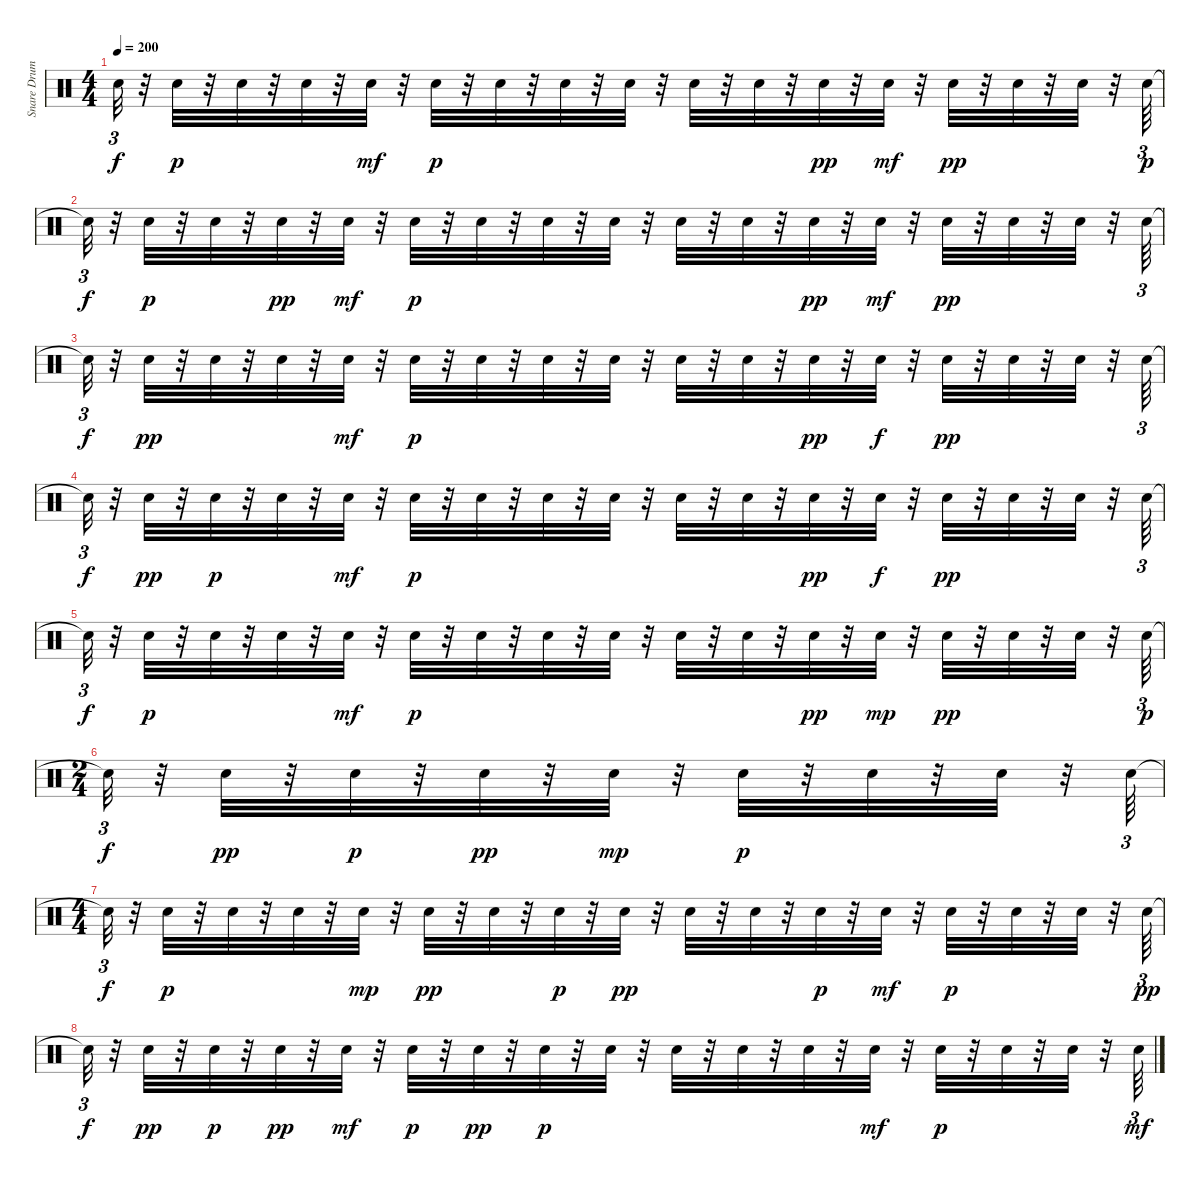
\track ("Snare Drums" "Snare Drum") {instrument percussion}
\staff {score}
\articulation defaults
\ts (4 4)
\tempo 200
\clef neutral
\ks c "Snare (hit)"{t}.32{tu (3 2) dy f}
r.32 "Hand Clap (hit)".32{dy p} r.32 "Hand Clap (hit)".32 r.32 "Hand Clap (hit)".32 r.32 "Hand Clap (hit)".32{dy mf} r.32 "Hand Clap (hit)".32{dy p} r.32 "Hand Clap (hit)".32 r.32 "Hand Clap (hit)".32 r.32 "Hand Clap (hit)".32 r.32 "Hand Clap (hit)".32 r.32 "Hand Clap (hit)".32 r.32 "Hand Clap (hit)".32{dy pp} r.32 "Hand Clap (hit)".32{dy mf} r.32 "Hand Clap (hit)".32{dy pp} r.32 "Hand Clap (hit)".32 r.32 "Hand Clap (hit)".32 r.32 "Hand Clap (hit)".64{tu (3 2) dy p} |
"Snare (hit)"{t}.32{tu (3 2) dy f} r.32 "Hand Clap (hit)".32{dy p} r.32 "Hand Clap (hit)".32 r.32 "Hand Clap (hit)".32{dy pp} r.32 "Hand Clap (hit)".32{dy mf} r.32 "Hand Clap (hit)".32{dy p} r.32 "Hand Clap (hit)".32 r.32 "Hand Clap (hit)".32 r.32 "Hand Clap (hit)".32 r.32 "Hand Clap (hit)".32 r.32 "Hand Clap (hit)".32 r.32 "Hand Clap (hit)".32{dy pp} r.32 "Hand Clap (hit)".32{dy mf} r.32 "Hand Clap (hit)".32{dy pp} r.32 "Hand Clap (hit)".32 r.32 "Hand Clap (hit)".32 r.32 "Hand Clap (hit)".64{tu (3 2)} |
"Snare (hit)"{t}.32{tu (3 2) dy f} r.32 "Hand Clap (hit)".32{dy pp} r.32 "Hand Clap (hit)".32 r.32 "Hand Clap (hit)".32 r.32 "Hand Clap (hit)".32{dy mf} r.32 "Hand Clap (hit)".32{dy p} r.32 "Hand Clap (hit)".32 r.32 "Hand Clap (hit)".32 r.32 "Hand Clap (hit)".32 r.32 "Hand Clap (hit)".32 r.32 "Hand Clap (hit)".32 r.32 "Hand Clap (hit)".32{dy pp} r.32 "Hand Clap (hit)".32{dy f} r.32 "Hand Clap (hit)".32{dy pp} r.32 "Hand Clap (hit)".32 r.32 "Hand Clap (hit)".32 r.32 "Hand Clap (hit)".64{tu (3 2)} |
"Snare (hit)"{t}.32{tu (3 2) dy f} r.32 "Hand Clap (hit)".32{dy pp} r.32 "Hand Clap (hit)".32{dy p} r.32 "Hand Clap (hit)".32 r.32 "Hand Clap (hit)".32{dy mf} r.32 "Hand Clap (hit)".32{dy p} r.32 "Hand Clap (hit)".32 r.32 "Hand Clap (hit)".32 r.32 "Hand Clap (hit)".32 r.32 "Hand Clap (hit)".32 r.32 "Hand Clap (hit)".32 r.32 "Hand Clap (hit)".32{dy pp} r.32 "Hand Clap (hit)".32{dy f} r.32 "Hand Clap (hit)".32{dy pp} r.32 "Hand Clap (hit)".32 r.32 "Hand Clap (hit)".32 r.32 "Hand Clap (hit)".64{tu (3 2)} |
"Snare (hit)"{t}.32{tu (3 2) dy f} r.32 "Hand Clap (hit)".32{dy p} r.32 "Hand Clap (hit)".32 r.32 "Hand Clap (hit)".32 r.32 "Hand Clap (hit)".32{dy mf} r.32 "Hand Clap (hit)".32{dy p} r.32 "Hand Clap (hit)".32 r.32 "Hand Clap (hit)".32 r.32 "Hand Clap (hit)".32 r.32 "Hand Clap (hit)".32 r.32 "Hand Clap (hit)".32 r.32 "Hand Clap (hit)".32{dy pp} r.32 "Hand Clap (hit)".32{dy mp} r.32 "Hand Clap (hit)".32{dy pp} r.32 "Hand Clap (hit)".32 r.32 "Hand Clap (hit)".32 r.32 "Hand Clap (hit)".64{tu (3 2) dy p} |
\ts (2 4)
"Snare (hit)"{t}.32{tu (3 2) dy f} r.32 "Hand Clap (hit)".32{dy pp} r.32 "Hand Clap (hit)".32{dy p} r.32 "Hand Clap (hit)".32{dy pp} r.32 "Hand Clap (hit)".32{dy mp} r.32 "Hand Clap (hit)".32{dy p} r.32 "Hand Clap (hit)".32 r.32 "Hand Clap (hit)".32 r.32 "Hand Clap (hit)".64{tu (3 2)} |
\ts (4 4)
"Snare (hit)"{t}.32{tu (3 2) dy f} r.32 "Hand Clap (hit)".32{dy p} r.32 "Hand Clap (hit)".32 r.32 "Hand Clap (hit)".32 r.32 "Hand Clap (hit)".32{dy mp} r.32 "Hand Clap (hit)".32{dy pp} r.32 "Hand Clap (hit)".32 r.32 "Hand Clap (hit)".32{dy p} r.32 "Hand Clap (hit)".32{dy pp} r.32 "Hand Clap (hit)".32 r.32 "Hand Clap (hit)".32 r.32 "Hand Clap (hit)".32{dy p} r.32 "Hand Clap (hit)".32{dy mf} r.32 "Hand Clap (hit)".32{dy p} r.32 "Hand Clap (hit)".32 r.32 "Hand Clap (hit)".32 r.32 "Hand Clap (hit)".64{tu (3 2) dy pp} |
"Snare (hit)"{t}.32{tu (3 2) dy f} r.32 "Hand Clap (hit)".32{dy pp} r.32 "Hand Clap (hit)".32{dy p} r.32 "Hand Clap (hit)".32{dy pp} r.32 "Hand Clap (hit)".32{dy mf} r.32 "Hand Clap (hit)".32{dy p} r.32 "Hand Clap (hit)".32{dy pp} r.32 "Hand Clap (hit)".32{dy p} r.32 "Hand Clap (hit)".32 r.32 "Hand Clap (hit)".32 r.32 "Hand Clap (hit)".32 r.32 "Hand Clap (hit)".32 r.32 "Hand Clap (hit)".32{dy mf} r.32 "Hand Clap (hit)".32{dy p} r.32 "Hand Clap (hit)".32 r.32 "Hand Clap (hit)".32 r.32 "Hand Clap (hit)".64{tu (3 2) dy mf}
